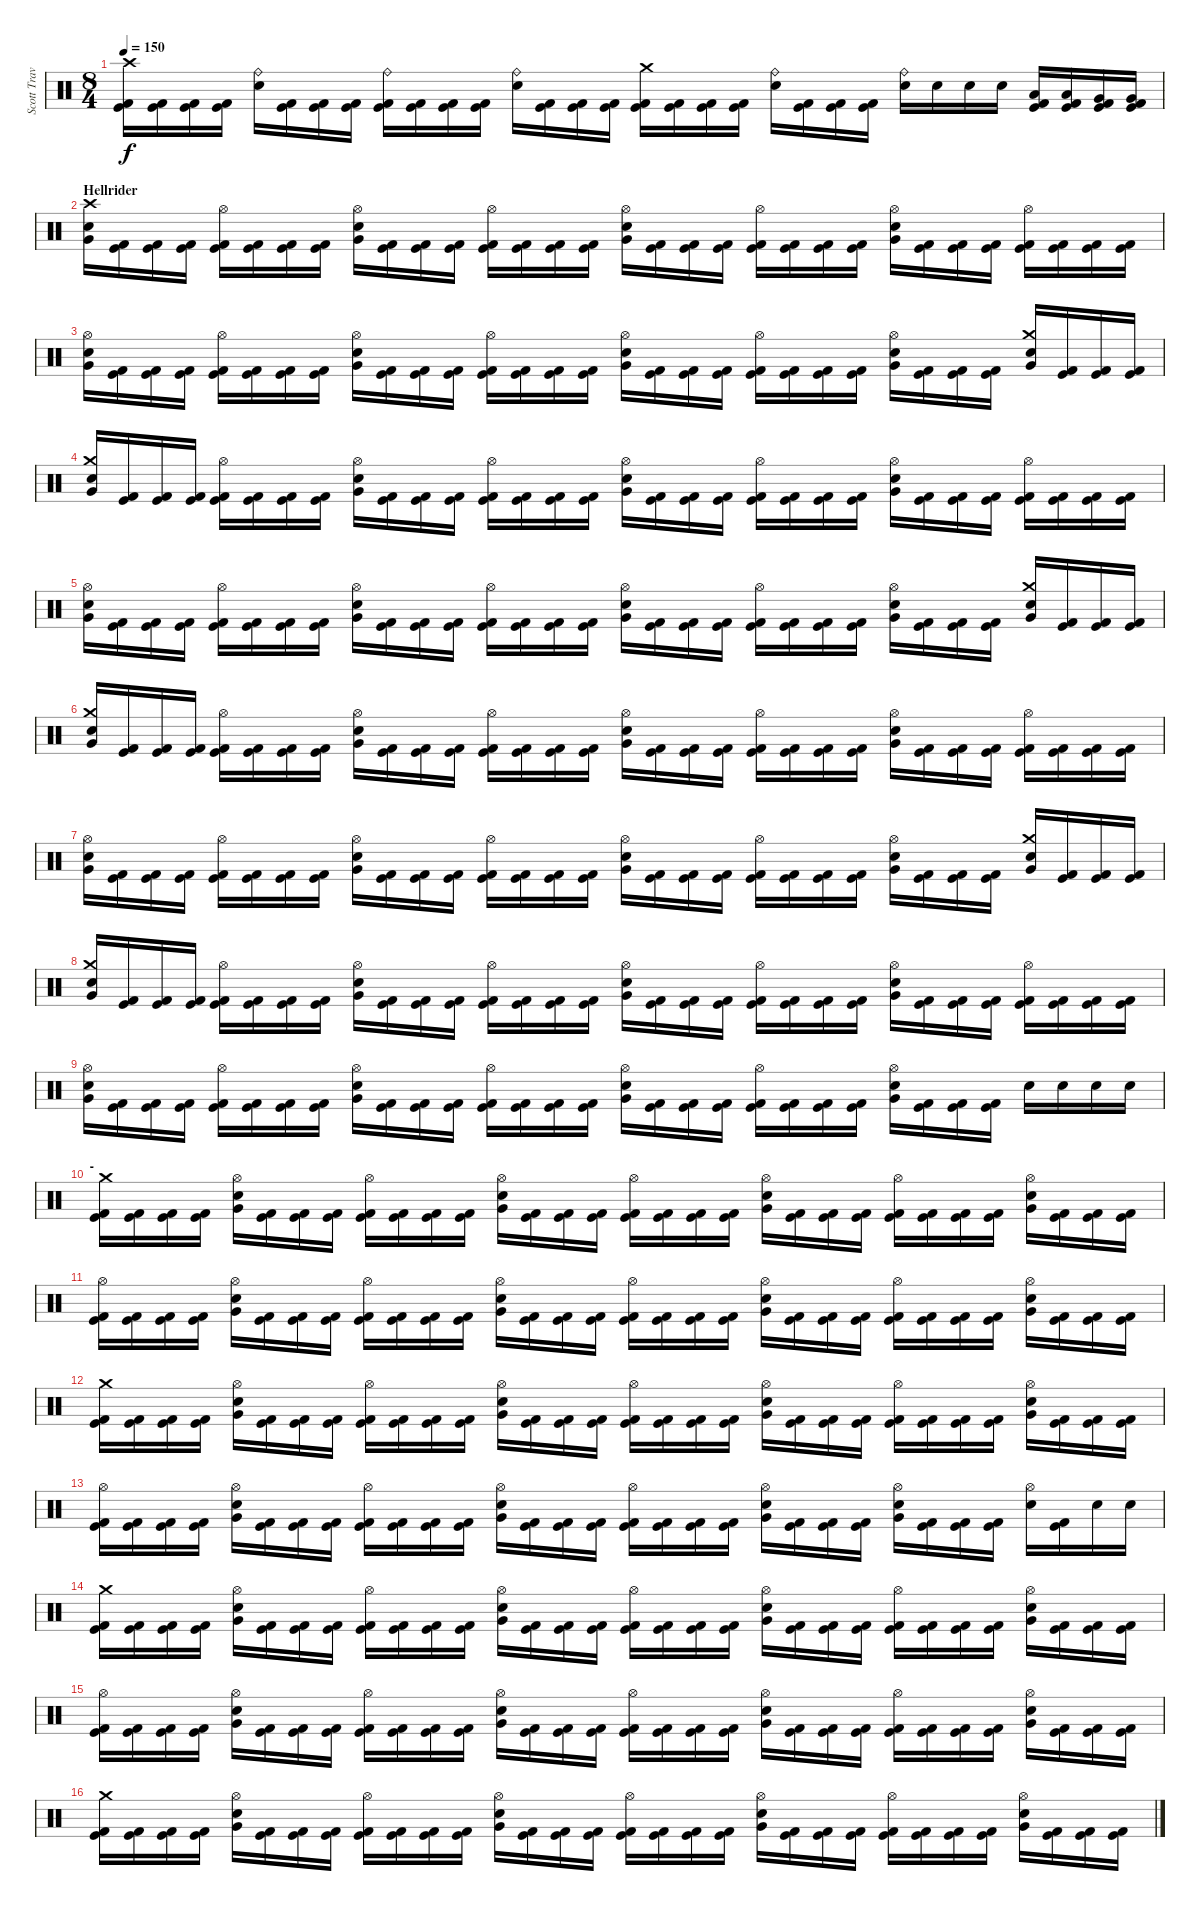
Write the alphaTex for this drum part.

\track ("Scott Travis" "Scott Trav") {instrument percussion}
\staff {score}
\articulation defaults
\ts (8 4)
\tempo 150
\clef neutral
\ks c
("Crash high (hit)" "Kick (hit)" "Kick (hit) 2").16{dy f} ("Kick (hit)" "Kick (hit) 2").16 ("Kick (hit)" "Kick (hit) 2").16 ("Kick (hit)" "Kick (hit) 2").16 ("Ride (bell)" "Electric Snare (hit)").16 ("Kick (hit)" "Kick (hit) 2").16 ("Kick (hit)" "Kick (hit) 2").16 ("Kick (hit)" "Kick (hit) 2").16 ("Ride (bell)" "Kick (hit)" "Kick (hit) 2").16 ("Kick (hit)" "Kick (hit) 2").16 ("Kick (hit)" "Kick (hit) 2").16 ("Kick (hit)" "Kick (hit) 2").16 ("Ride (bell)" "Electric Snare (hit)").16 ("Kick (hit)" "Kick (hit) 2").16 ("Kick (hit)" "Kick (hit) 2").16 ("Kick (hit)" "Kick (hit) 2").16 ("Crash medium (hit)" "Kick (hit)" "Kick (hit) 2").16 ("Kick (hit)" "Kick (hit) 2").16 ("Kick (hit)" "Kick (hit) 2").16 ("Kick (hit)" "Kick (hit) 2").16 ("Ride (bell)" "Electric Snare (hit)").16 ("Kick (hit)" "Kick (hit) 2").16 ("Kick (hit)" "Kick (hit) 2").16 ("Kick (hit)" "Kick (hit) 2").16 ("Ride (bell)" "Electric Snare (hit)").16 "Electric Snare (hit)".16 "Electric Snare (hit)".16 "Electric Snare (hit)".16 ("Low Tom (hit)" "Kick (hit)" "Kick (hit) 2").16 ("Low Tom (hit)" "Kick (hit)" "Kick (hit) 2").16 ("Very Low Tom (hit)" "Kick (hit)" "Kick (hit) 2").16 ("Very Low Tom (hit)" "Kick (hit)" "Kick (hit) 2").16 |
\section ("" "Hellrider")
("Crash high (hit)" "Very Low Tom (hit)" "Electric Snare (hit)").16 ("Kick (hit)" "Kick (hit) 2").16 ("Kick (hit)" "Kick (hit) 2").16 ("Kick (hit)" "Kick (hit) 2").16 ("Hi-Hat (open)" "Kick (hit)" "Kick (hit) 2").16 ("Kick (hit)" "Kick (hit) 2").16 ("Kick (hit)" "Kick (hit) 2").16 ("Kick (hit)" "Kick (hit) 2").16 ("Hi-Hat (open)" "Very Low Tom (hit)" "Electric Snare (hit)").16 ("Kick (hit)" "Kick (hit) 2").16 ("Kick (hit)" "Kick (hit) 2").16 ("Kick (hit)" "Kick (hit) 2").16 ("Hi-Hat (open)" "Kick (hit)" "Kick (hit) 2").16 ("Kick (hit)" "Kick (hit) 2").16 ("Kick (hit)" "Kick (hit) 2").16 ("Kick (hit)" "Kick (hit) 2").16 ("Hi-Hat (open)" "Very Low Tom (hit)" "Electric Snare (hit)").16 ("Kick (hit)" "Kick (hit) 2").16 ("Kick (hit)" "Kick (hit) 2").16 ("Kick (hit)" "Kick (hit) 2").16 ("Hi-Hat (open)" "Kick (hit)" "Kick (hit) 2").16 ("Kick (hit)" "Kick (hit) 2").16 ("Kick (hit)" "Kick (hit) 2").16 ("Kick (hit)" "Kick (hit) 2").16 ("Hi-Hat (open)" "Very Low Tom (hit)" "Electric Snare (hit)").16 ("Kick (hit)" "Kick (hit) 2").16 ("Kick (hit)" "Kick (hit) 2").16 ("Kick (hit)" "Kick (hit) 2").16 ("Hi-Hat (open)" "Kick (hit)" "Kick (hit) 2").16 ("Kick (hit)" "Kick (hit) 2").16 ("Kick (hit)" "Kick (hit) 2").16 ("Kick (hit)" "Kick (hit) 2").16 |
("Hi-Hat (open)" "Very Low Tom (hit)" "Electric Snare (hit)").16 ("Kick (hit)" "Kick (hit) 2").16 ("Kick (hit)" "Kick (hit) 2").16 ("Kick (hit)" "Kick (hit) 2").16 ("Hi-Hat (open)" "Kick (hit)" "Kick (hit) 2").16 ("Kick (hit)" "Kick (hit) 2").16 ("Kick (hit)" "Kick (hit) 2").16 ("Kick (hit)" "Kick (hit) 2").16 ("Hi-Hat (open)" "Very Low Tom (hit)" "Electric Snare (hit)").16 ("Kick (hit)" "Kick (hit) 2").16 ("Kick (hit)" "Kick (hit) 2").16 ("Kick (hit)" "Kick (hit) 2").16 ("Hi-Hat (open)" "Kick (hit)" "Kick (hit) 2").16 ("Kick (hit)" "Kick (hit) 2").16 ("Kick (hit)" "Kick (hit) 2").16 ("Kick (hit)" "Kick (hit) 2").16 ("Hi-Hat (open)" "Very Low Tom (hit)" "Electric Snare (hit)").16 ("Kick (hit)" "Kick (hit) 2").16 ("Kick (hit)" "Kick (hit) 2").16 ("Kick (hit)" "Kick (hit) 2").16 ("Hi-Hat (open)" "Kick (hit)" "Kick (hit) 2").16 ("Kick (hit)" "Kick (hit) 2").16 ("Kick (hit)" "Kick (hit) 2").16 ("Kick (hit)" "Kick (hit) 2").16 ("Hi-Hat (open)" "Very Low Tom (hit)" "Electric Snare (hit)").16 ("Kick (hit)" "Kick (hit) 2").16 ("Kick (hit)" "Kick (hit) 2").16 ("Kick (hit)" "Kick (hit) 2").16 ("Crash medium (hit)" "Very Low Tom (hit)" "Electric Snare (hit)").16 ("Kick (hit)" "Kick (hit) 2").16 ("Kick (hit)" "Kick (hit) 2").16 ("Kick (hit)" "Kick (hit) 2").16 |
("Crash medium (hit)" "Very Low Tom (hit)" "Electric Snare (hit)").16 ("Kick (hit)" "Kick (hit) 2").16 ("Kick (hit)" "Kick (hit) 2").16 ("Kick (hit)" "Kick (hit) 2").16 ("Hi-Hat (open)" "Kick (hit)" "Kick (hit) 2").16 ("Kick (hit)" "Kick (hit) 2").16 ("Kick (hit)" "Kick (hit) 2").16 ("Kick (hit)" "Kick (hit) 2").16 ("Hi-Hat (open)" "Very Low Tom (hit)" "Electric Snare (hit)").16 ("Kick (hit)" "Kick (hit) 2").16 ("Kick (hit)" "Kick (hit) 2").16 ("Kick (hit)" "Kick (hit) 2").16 ("Hi-Hat (open)" "Kick (hit)" "Kick (hit) 2").16 ("Kick (hit)" "Kick (hit) 2").16 ("Kick (hit)" "Kick (hit) 2").16 ("Kick (hit)" "Kick (hit) 2").16 ("Hi-Hat (open)" "Very Low Tom (hit)" "Electric Snare (hit)").16 ("Kick (hit)" "Kick (hit) 2").16 ("Kick (hit)" "Kick (hit) 2").16 ("Kick (hit)" "Kick (hit) 2").16 ("Hi-Hat (open)" "Kick (hit)" "Kick (hit) 2").16 ("Kick (hit)" "Kick (hit) 2").16 ("Kick (hit)" "Kick (hit) 2").16 ("Kick (hit)" "Kick (hit) 2").16 ("Hi-Hat (open)" "Very Low Tom (hit)" "Electric Snare (hit)").16 ("Kick (hit)" "Kick (hit) 2").16 ("Kick (hit)" "Kick (hit) 2").16 ("Kick (hit)" "Kick (hit) 2").16 ("Hi-Hat (open)" "Kick (hit)" "Kick (hit) 2").16 ("Kick (hit)" "Kick (hit) 2").16 ("Kick (hit)" "Kick (hit) 2").16 ("Kick (hit)" "Kick (hit) 2").16 |
("Hi-Hat (open)" "Very Low Tom (hit)" "Electric Snare (hit)").16 ("Kick (hit)" "Kick (hit) 2").16 ("Kick (hit)" "Kick (hit) 2").16 ("Kick (hit)" "Kick (hit) 2").16 ("Hi-Hat (open)" "Kick (hit)" "Kick (hit) 2").16 ("Kick (hit)" "Kick (hit) 2").16 ("Kick (hit)" "Kick (hit) 2").16 ("Kick (hit)" "Kick (hit) 2").16 ("Hi-Hat (open)" "Very Low Tom (hit)" "Electric Snare (hit)").16 ("Kick (hit)" "Kick (hit) 2").16 ("Kick (hit)" "Kick (hit) 2").16 ("Kick (hit)" "Kick (hit) 2").16 ("Hi-Hat (open)" "Kick (hit)" "Kick (hit) 2").16 ("Kick (hit)" "Kick (hit) 2").16 ("Kick (hit)" "Kick (hit) 2").16 ("Kick (hit)" "Kick (hit) 2").16 ("Hi-Hat (open)" "Very Low Tom (hit)" "Electric Snare (hit)").16 ("Kick (hit)" "Kick (hit) 2").16 ("Kick (hit)" "Kick (hit) 2").16 ("Kick (hit)" "Kick (hit) 2").16 ("Hi-Hat (open)" "Kick (hit)" "Kick (hit) 2").16 ("Kick (hit)" "Kick (hit) 2").16 ("Kick (hit)" "Kick (hit) 2").16 ("Kick (hit)" "Kick (hit) 2").16 ("Hi-Hat (open)" "Very Low Tom (hit)" "Electric Snare (hit)").16 ("Kick (hit)" "Kick (hit) 2").16 ("Kick (hit)" "Kick (hit) 2").16 ("Kick (hit)" "Kick (hit) 2").16 ("Crash medium (hit)" "Very Low Tom (hit)" "Electric Snare (hit)").16 ("Kick (hit)" "Kick (hit) 2").16 ("Kick (hit)" "Kick (hit) 2").16 ("Kick (hit)" "Kick (hit) 2").16 |
("Crash medium (hit)" "Very Low Tom (hit)" "Electric Snare (hit)").16 ("Kick (hit)" "Kick (hit) 2").16 ("Kick (hit)" "Kick (hit) 2").16 ("Kick (hit)" "Kick (hit) 2").16 ("Hi-Hat (open)" "Kick (hit)" "Kick (hit) 2").16 ("Kick (hit)" "Kick (hit) 2").16 ("Kick (hit)" "Kick (hit) 2").16 ("Kick (hit)" "Kick (hit) 2").16 ("Hi-Hat (open)" "Very Low Tom (hit)" "Electric Snare (hit)").16 ("Kick (hit)" "Kick (hit) 2").16 ("Kick (hit)" "Kick (hit) 2").16 ("Kick (hit)" "Kick (hit) 2").16 ("Hi-Hat (open)" "Kick (hit)" "Kick (hit) 2").16 ("Kick (hit)" "Kick (hit) 2").16 ("Kick (hit)" "Kick (hit) 2").16 ("Kick (hit)" "Kick (hit) 2").16 ("Hi-Hat (open)" "Very Low Tom (hit)" "Electric Snare (hit)").16 ("Kick (hit)" "Kick (hit) 2").16 ("Kick (hit)" "Kick (hit) 2").16 ("Kick (hit)" "Kick (hit) 2").16 ("Hi-Hat (open)" "Kick (hit)" "Kick (hit) 2").16 ("Kick (hit)" "Kick (hit) 2").16 ("Kick (hit)" "Kick (hit) 2").16 ("Kick (hit)" "Kick (hit) 2").16 ("Hi-Hat (open)" "Very Low Tom (hit)" "Electric Snare (hit)").16 ("Kick (hit)" "Kick (hit) 2").16 ("Kick (hit)" "Kick (hit) 2").16 ("Kick (hit)" "Kick (hit) 2").16 ("Hi-Hat (open)" "Kick (hit)" "Kick (hit) 2").16 ("Kick (hit)" "Kick (hit) 2").16 ("Kick (hit)" "Kick (hit) 2").16 ("Kick (hit)" "Kick (hit) 2").16 |
("Hi-Hat (open)" "Very Low Tom (hit)" "Electric Snare (hit)").16 ("Kick (hit)" "Kick (hit) 2").16 ("Kick (hit)" "Kick (hit) 2").16 ("Kick (hit)" "Kick (hit) 2").16 ("Hi-Hat (open)" "Kick (hit)" "Kick (hit) 2").16 ("Kick (hit)" "Kick (hit) 2").16 ("Kick (hit)" "Kick (hit) 2").16 ("Kick (hit)" "Kick (hit) 2").16 ("Hi-Hat (open)" "Very Low Tom (hit)" "Electric Snare (hit)").16 ("Kick (hit)" "Kick (hit) 2").16 ("Kick (hit)" "Kick (hit) 2").16 ("Kick (hit)" "Kick (hit) 2").16 ("Hi-Hat (open)" "Kick (hit)" "Kick (hit) 2").16 ("Kick (hit)" "Kick (hit) 2").16 ("Kick (hit)" "Kick (hit) 2").16 ("Kick (hit)" "Kick (hit) 2").16 ("Hi-Hat (open)" "Very Low Tom (hit)" "Electric Snare (hit)").16 ("Kick (hit)" "Kick (hit) 2").16 ("Kick (hit)" "Kick (hit) 2").16 ("Kick (hit)" "Kick (hit) 2").16 ("Hi-Hat (open)" "Kick (hit)" "Kick (hit) 2").16 ("Kick (hit)" "Kick (hit) 2").16 ("Kick (hit)" "Kick (hit) 2").16 ("Kick (hit)" "Kick (hit) 2").16 ("Hi-Hat (open)" "Very Low Tom (hit)" "Electric Snare (hit)").16 ("Kick (hit)" "Kick (hit) 2").16 ("Kick (hit)" "Kick (hit) 2").16 ("Kick (hit)" "Kick (hit) 2").16 ("Crash medium (hit)" "Very Low Tom (hit)" "Electric Snare (hit)").16 ("Kick (hit)" "Kick (hit) 2").16 ("Kick (hit)" "Kick (hit) 2").16 ("Kick (hit)" "Kick (hit) 2").16 |
("Crash medium (hit)" "Very Low Tom (hit)" "Electric Snare (hit)").16 ("Kick (hit)" "Kick (hit) 2").16 ("Kick (hit)" "Kick (hit) 2").16 ("Kick (hit)" "Kick (hit) 2").16 ("Hi-Hat (open)" "Kick (hit)" "Kick (hit) 2").16 ("Kick (hit)" "Kick (hit) 2").16 ("Kick (hit)" "Kick (hit) 2").16 ("Kick (hit)" "Kick (hit) 2").16 ("Hi-Hat (open)" "Very Low Tom (hit)" "Electric Snare (hit)").16 ("Kick (hit)" "Kick (hit) 2").16 ("Kick (hit)" "Kick (hit) 2").16 ("Kick (hit)" "Kick (hit) 2").16 ("Hi-Hat (open)" "Kick (hit)" "Kick (hit) 2").16 ("Kick (hit)" "Kick (hit) 2").16 ("Kick (hit)" "Kick (hit) 2").16 ("Kick (hit)" "Kick (hit) 2").16 ("Hi-Hat (open)" "Very Low Tom (hit)" "Electric Snare (hit)").16 ("Kick (hit)" "Kick (hit) 2").16 ("Kick (hit)" "Kick (hit) 2").16 ("Kick (hit)" "Kick (hit) 2").16 ("Hi-Hat (open)" "Kick (hit)" "Kick (hit) 2").16 ("Kick (hit)" "Kick (hit) 2").16 ("Kick (hit)" "Kick (hit) 2").16 ("Kick (hit)" "Kick (hit) 2").16 ("Hi-Hat (open)" "Very Low Tom (hit)" "Electric Snare (hit)").16 ("Kick (hit)" "Kick (hit) 2").16 ("Kick (hit)" "Kick (hit) 2").16 ("Kick (hit)" "Kick (hit) 2").16 ("Hi-Hat (open)" "Kick (hit)" "Kick (hit) 2").16 ("Kick (hit)" "Kick (hit) 2").16 ("Kick (hit)" "Kick (hit) 2").16 ("Kick (hit)" "Kick (hit) 2").16 |
("Hi-Hat (open)" "Very Low Tom (hit)" "Electric Snare (hit)").16 ("Kick (hit)" "Kick (hit) 2").16 ("Kick (hit)" "Kick (hit) 2").16 ("Kick (hit)" "Kick (hit) 2").16 ("Hi-Hat (open)" "Kick (hit)" "Kick (hit) 2").16 ("Kick (hit)" "Kick (hit) 2").16 ("Kick (hit)" "Kick (hit) 2").16 ("Kick (hit)" "Kick (hit) 2").16 ("Hi-Hat (open)" "Very Low Tom (hit)" "Electric Snare (hit)").16 ("Kick (hit)" "Kick (hit) 2").16 ("Kick (hit)" "Kick (hit) 2").16 ("Kick (hit)" "Kick (hit) 2").16 ("Hi-Hat (open)" "Kick (hit)" "Kick (hit) 2").16 ("Kick (hit)" "Kick (hit) 2").16 ("Kick (hit)" "Kick (hit) 2").16 ("Kick (hit)" "Kick (hit) 2").16 ("Hi-Hat (open)" "Very Low Tom (hit)" "Electric Snare (hit)").16 ("Kick (hit)" "Kick (hit) 2").16 ("Kick (hit)" "Kick (hit) 2").16 ("Kick (hit)" "Kick (hit) 2").16 ("Hi-Hat (open)" "Kick (hit)" "Kick (hit) 2").16 ("Kick (hit)" "Kick (hit) 2").16 ("Kick (hit)" "Kick (hit) 2").16 ("Kick (hit)" "Kick (hit) 2").16 ("Hi-Hat (open)" "Very Low Tom (hit)" "Electric Snare (hit)").16 ("Kick (hit)" "Kick (hit) 2").16 ("Kick (hit)" "Kick (hit) 2").16 ("Kick (hit)" "Kick (hit) 2").16 "Electric Snare (hit)".16 "Electric Snare (hit)".16 "Electric Snare (hit)".16 "Electric Snare (hit)".16 |
\section ("" "-")
("Crash medium (hit)" "Kick (hit)" "Kick (hit) 2").16 ("Kick (hit)" "Kick (hit) 2").16 ("Kick (hit)" "Kick (hit) 2").16 ("Kick (hit)" "Kick (hit) 2").16 ("Hi-Hat (open)" "Very Low Tom (hit)" "Electric Snare (hit)").16 ("Kick (hit)" "Kick (hit) 2").16 ("Kick (hit)" "Kick (hit) 2").16 ("Kick (hit)" "Kick (hit) 2").16 ("Hi-Hat (open)" "Kick (hit)" "Kick (hit) 2").16 ("Kick (hit)" "Kick (hit) 2").16 ("Kick (hit)" "Kick (hit) 2").16 ("Kick (hit)" "Kick (hit) 2").16 ("Hi-Hat (open)" "Very Low Tom (hit)" "Electric Snare (hit)").16 ("Kick (hit)" "Kick (hit) 2").16 ("Kick (hit)" "Kick (hit) 2").16 ("Kick (hit)" "Kick (hit) 2").16 ("Hi-Hat (open)" "Kick (hit)" "Kick (hit) 2").16 ("Kick (hit)" "Kick (hit) 2").16 ("Kick (hit)" "Kick (hit) 2").16 ("Kick (hit)" "Kick (hit) 2").16 ("Hi-Hat (open)" "Very Low Tom (hit)" "Electric Snare (hit)").16 ("Kick (hit)" "Kick (hit) 2").16 ("Kick (hit)" "Kick (hit) 2").16 ("Kick (hit)" "Kick (hit) 2").16 ("Hi-Hat (open)" "Kick (hit)" "Kick (hit) 2").16 ("Kick (hit)" "Kick (hit) 2").16 ("Kick (hit)" "Kick (hit) 2").16 ("Kick (hit)" "Kick (hit) 2").16 ("Hi-Hat (open)" "Very Low Tom (hit)" "Electric Snare (hit)").16 ("Kick (hit)" "Kick (hit) 2").16 ("Kick (hit)" "Kick (hit) 2").16 ("Kick (hit)" "Kick (hit) 2").16 |
("Hi-Hat (open)" "Kick (hit)" "Kick (hit) 2").16 ("Kick (hit)" "Kick (hit) 2").16 ("Kick (hit)" "Kick (hit) 2").16 ("Kick (hit)" "Kick (hit) 2").16 ("Hi-Hat (open)" "Very Low Tom (hit)" "Electric Snare (hit)").16 ("Kick (hit)" "Kick (hit) 2").16 ("Kick (hit)" "Kick (hit) 2").16 ("Kick (hit)" "Kick (hit) 2").16 ("Hi-Hat (open)" "Kick (hit)" "Kick (hit) 2").16 ("Kick (hit)" "Kick (hit) 2").16 ("Kick (hit)" "Kick (hit) 2").16 ("Kick (hit)" "Kick (hit) 2").16 ("Hi-Hat (open)" "Very Low Tom (hit)" "Electric Snare (hit)").16 ("Kick (hit)" "Kick (hit) 2").16 ("Kick (hit)" "Kick (hit) 2").16 ("Kick (hit)" "Kick (hit) 2").16 ("Hi-Hat (open)" "Kick (hit)" "Kick (hit) 2").16 ("Kick (hit)" "Kick (hit) 2").16 ("Kick (hit)" "Kick (hit) 2").16 ("Kick (hit)" "Kick (hit) 2").16 ("Hi-Hat (open)" "Very Low Tom (hit)" "Electric Snare (hit)").16 ("Kick (hit)" "Kick (hit) 2").16 ("Kick (hit)" "Kick (hit) 2").16 ("Kick (hit)" "Kick (hit) 2").16 ("Hi-Hat (open)" "Kick (hit)" "Kick (hit) 2").16 ("Kick (hit)" "Kick (hit) 2").16 ("Kick (hit)" "Kick (hit) 2").16 ("Kick (hit)" "Kick (hit) 2").16 ("Hi-Hat (open)" "Very Low Tom (hit)" "Electric Snare (hit)").16 ("Kick (hit)" "Kick (hit) 2").16 ("Kick (hit)" "Kick (hit) 2").16 ("Kick (hit)" "Kick (hit) 2").16 |
("Crash medium (hit)" "Kick (hit)" "Kick (hit) 2").16 ("Kick (hit)" "Kick (hit) 2").16 ("Kick (hit)" "Kick (hit) 2").16 ("Kick (hit)" "Kick (hit) 2").16 ("Hi-Hat (open)" "Very Low Tom (hit)" "Electric Snare (hit)").16 ("Kick (hit)" "Kick (hit) 2").16 ("Kick (hit)" "Kick (hit) 2").16 ("Kick (hit)" "Kick (hit) 2").16 ("Hi-Hat (open)" "Kick (hit)" "Kick (hit) 2").16 ("Kick (hit)" "Kick (hit) 2").16 ("Kick (hit)" "Kick (hit) 2").16 ("Kick (hit)" "Kick (hit) 2").16 ("Hi-Hat (open)" "Very Low Tom (hit)" "Electric Snare (hit)").16 ("Kick (hit)" "Kick (hit) 2").16 ("Kick (hit)" "Kick (hit) 2").16 ("Kick (hit)" "Kick (hit) 2").16 ("Hi-Hat (open)" "Kick (hit)" "Kick (hit) 2").16 ("Kick (hit)" "Kick (hit) 2").16 ("Kick (hit)" "Kick (hit) 2").16 ("Kick (hit)" "Kick (hit) 2").16 ("Hi-Hat (open)" "Very Low Tom (hit)" "Electric Snare (hit)").16 ("Kick (hit)" "Kick (hit) 2").16 ("Kick (hit)" "Kick (hit) 2").16 ("Kick (hit)" "Kick (hit) 2").16 ("Hi-Hat (open)" "Kick (hit)" "Kick (hit) 2").16 ("Kick (hit)" "Kick (hit) 2").16 ("Kick (hit)" "Kick (hit) 2").16 ("Kick (hit)" "Kick (hit) 2").16 ("Hi-Hat (open)" "Very Low Tom (hit)" "Electric Snare (hit)").16 ("Kick (hit)" "Kick (hit) 2").16 ("Kick (hit)" "Kick (hit) 2").16 ("Kick (hit)" "Kick (hit) 2").16 |
("Hi-Hat (open)" "Kick (hit)" "Kick (hit) 2").16 ("Kick (hit)" "Kick (hit) 2").16 ("Kick (hit)" "Kick (hit) 2").16 ("Kick (hit)" "Kick (hit) 2").16 ("Hi-Hat (open)" "Very Low Tom (hit)" "Electric Snare (hit)").16 ("Kick (hit)" "Kick (hit) 2").16 ("Kick (hit)" "Kick (hit) 2").16 ("Kick (hit)" "Kick (hit) 2").16 ("Hi-Hat (open)" "Kick (hit)" "Kick (hit) 2").16 ("Kick (hit)" "Kick (hit) 2").16 ("Kick (hit)" "Kick (hit) 2").16 ("Kick (hit)" "Kick (hit) 2").16 ("Hi-Hat (open)" "Very Low Tom (hit)" "Electric Snare (hit)").16 ("Kick (hit)" "Kick (hit) 2").16 ("Kick (hit)" "Kick (hit) 2").16 ("Kick (hit)" "Kick (hit) 2").16 ("Hi-Hat (open)" "Kick (hit)" "Kick (hit) 2").16 ("Kick (hit)" "Kick (hit) 2").16 ("Kick (hit)" "Kick (hit) 2").16 ("Kick (hit)" "Kick (hit) 2").16 ("Hi-Hat (open)" "Very Low Tom (hit)" "Electric Snare (hit)").16 ("Kick (hit)" "Kick (hit) 2").16 ("Kick (hit)" "Kick (hit) 2").16 ("Kick (hit)" "Kick (hit) 2").16 ("Hi-Hat (open)" "Very Low Tom (hit)" "Electric Snare (hit)").16 ("Kick (hit)" "Kick (hit) 2").16 ("Kick (hit)" "Kick (hit) 2").16 ("Kick (hit)" "Kick (hit) 2").16 ("Hi-Hat (open)" "Electric Snare (hit)").16 ("Kick (hit)" "Kick (hit) 2").16 "Electric Snare (hit)".16 "Electric Snare (hit)".16 |
("Crash medium (hit)" "Kick (hit)" "Kick (hit) 2").16 ("Kick (hit)" "Kick (hit) 2").16 ("Kick (hit)" "Kick (hit) 2").16 ("Kick (hit)" "Kick (hit) 2").16 ("Hi-Hat (open)" "Very Low Tom (hit)" "Electric Snare (hit)").16 ("Kick (hit)" "Kick (hit) 2").16 ("Kick (hit)" "Kick (hit) 2").16 ("Kick (hit)" "Kick (hit) 2").16 ("Hi-Hat (open)" "Kick (hit)" "Kick (hit) 2").16 ("Kick (hit)" "Kick (hit) 2").16 ("Kick (hit)" "Kick (hit) 2").16 ("Kick (hit)" "Kick (hit) 2").16 ("Hi-Hat (open)" "Very Low Tom (hit)" "Electric Snare (hit)").16 ("Kick (hit)" "Kick (hit) 2").16 ("Kick (hit)" "Kick (hit) 2").16 ("Kick (hit)" "Kick (hit) 2").16 ("Hi-Hat (open)" "Kick (hit)" "Kick (hit) 2").16 ("Kick (hit)" "Kick (hit) 2").16 ("Kick (hit)" "Kick (hit) 2").16 ("Kick (hit)" "Kick (hit) 2").16 ("Hi-Hat (open)" "Very Low Tom (hit)" "Electric Snare (hit)").16 ("Kick (hit)" "Kick (hit) 2").16 ("Kick (hit)" "Kick (hit) 2").16 ("Kick (hit)" "Kick (hit) 2").16 ("Hi-Hat (open)" "Kick (hit)" "Kick (hit) 2").16 ("Kick (hit)" "Kick (hit) 2").16 ("Kick (hit)" "Kick (hit) 2").16 ("Kick (hit)" "Kick (hit) 2").16 ("Hi-Hat (open)" "Very Low Tom (hit)" "Electric Snare (hit)").16 ("Kick (hit)" "Kick (hit) 2").16 ("Kick (hit)" "Kick (hit) 2").16 ("Kick (hit)" "Kick (hit) 2").16 |
("Hi-Hat (open)" "Kick (hit)" "Kick (hit) 2").16 ("Kick (hit)" "Kick (hit) 2").16 ("Kick (hit)" "Kick (hit) 2").16 ("Kick (hit)" "Kick (hit) 2").16 ("Hi-Hat (open)" "Very Low Tom (hit)" "Electric Snare (hit)").16 ("Kick (hit)" "Kick (hit) 2").16 ("Kick (hit)" "Kick (hit) 2").16 ("Kick (hit)" "Kick (hit) 2").16 ("Hi-Hat (open)" "Kick (hit)" "Kick (hit) 2").16 ("Kick (hit)" "Kick (hit) 2").16 ("Kick (hit)" "Kick (hit) 2").16 ("Kick (hit)" "Kick (hit) 2").16 ("Hi-Hat (open)" "Very Low Tom (hit)" "Electric Snare (hit)").16 ("Kick (hit)" "Kick (hit) 2").16 ("Kick (hit)" "Kick (hit) 2").16 ("Kick (hit)" "Kick (hit) 2").16 ("Hi-Hat (open)" "Kick (hit)" "Kick (hit) 2").16 ("Kick (hit)" "Kick (hit) 2").16 ("Kick (hit)" "Kick (hit) 2").16 ("Kick (hit)" "Kick (hit) 2").16 ("Hi-Hat (open)" "Very Low Tom (hit)" "Electric Snare (hit)").16 ("Kick (hit)" "Kick (hit) 2").16 ("Kick (hit)" "Kick (hit) 2").16 ("Kick (hit)" "Kick (hit) 2").16 ("Hi-Hat (open)" "Kick (hit)" "Kick (hit) 2").16 ("Kick (hit)" "Kick (hit) 2").16 ("Kick (hit)" "Kick (hit) 2").16 ("Kick (hit)" "Kick (hit) 2").16 ("Hi-Hat (open)" "Very Low Tom (hit)" "Electric Snare (hit)").16 ("Kick (hit)" "Kick (hit) 2").16 ("Kick (hit)" "Kick (hit) 2").16 ("Kick (hit)" "Kick (hit) 2").16 |
("Crash medium (hit)" "Kick (hit)" "Kick (hit) 2").16 ("Kick (hit)" "Kick (hit) 2").16 ("Kick (hit)" "Kick (hit) 2").16 ("Kick (hit)" "Kick (hit) 2").16 ("Hi-Hat (open)" "Very Low Tom (hit)" "Electric Snare (hit)").16 ("Kick (hit)" "Kick (hit) 2").16 ("Kick (hit)" "Kick (hit) 2").16 ("Kick (hit)" "Kick (hit) 2").16 ("Hi-Hat (open)" "Kick (hit)" "Kick (hit) 2").16 ("Kick (hit)" "Kick (hit) 2").16 ("Kick (hit)" "Kick (hit) 2").16 ("Kick (hit)" "Kick (hit) 2").16 ("Hi-Hat (open)" "Very Low Tom (hit)" "Electric Snare (hit)").16 ("Kick (hit)" "Kick (hit) 2").16 ("Kick (hit)" "Kick (hit) 2").16 ("Kick (hit)" "Kick (hit) 2").16 ("Hi-Hat (open)" "Kick (hit)" "Kick (hit) 2").16 ("Kick (hit)" "Kick (hit) 2").16 ("Kick (hit)" "Kick (hit) 2").16 ("Kick (hit)" "Kick (hit) 2").16 ("Hi-Hat (open)" "Very Low Tom (hit)" "Electric Snare (hit)").16 ("Kick (hit)" "Kick (hit) 2").16 ("Kick (hit)" "Kick (hit) 2").16 ("Kick (hit)" "Kick (hit) 2").16 ("Hi-Hat (open)" "Kick (hit)" "Kick (hit) 2").16 ("Kick (hit)" "Kick (hit) 2").16 ("Kick (hit)" "Kick (hit) 2").16 ("Kick (hit)" "Kick (hit) 2").16 ("Hi-Hat (open)" "Very Low Tom (hit)" "Electric Snare (hit)").16 ("Kick (hit)" "Kick (hit) 2").16 ("Kick (hit)" "Kick (hit) 2").16 ("Kick (hit)" "Kick (hit) 2").16
